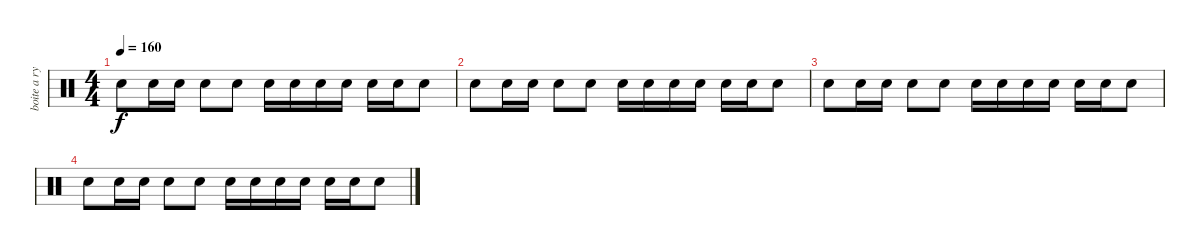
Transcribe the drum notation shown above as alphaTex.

\track ("boite a rythme" "boite a ry") {instrument percussion}
\staff {score}
\articulation defaults
\ts (4 4)
\tempo 160
\clef neutral
\ks c "Snare (hit) 2".8{dy f} "Snare (hit) 2".16 "Snare (hit) 2".16 "Snare (hit) 2".8 "Snare (hit) 2".8 "Snare (hit) 2".16 "Snare (hit) 2".16 "Snare (hit) 2".16 "Snare (hit) 2".16 "Snare (hit) 2".16 "Snare (hit) 2".16 "Snare (hit) 2".8
|
"Snare (hit) 2".8 "Snare (hit) 2".16 "Snare (hit) 2".16 "Snare (hit) 2".8 "Snare (hit) 2".8 "Snare (hit) 2".16 "Snare (hit) 2".16 "Snare (hit) 2".16 "Snare (hit) 2".16 "Snare (hit) 2".16 "Snare (hit) 2".16 "Snare (hit) 2".8 |
"Snare (hit) 2".8 "Snare (hit) 2".16 "Snare (hit) 2".16 "Snare (hit) 2".8 "Snare (hit) 2".8 "Snare (hit) 2".16 "Snare (hit) 2".16 "Snare (hit) 2".16 "Snare (hit) 2".16 "Snare (hit) 2".16 "Snare (hit) 2".16 "Snare (hit) 2".8 |
"Snare (hit) 2".8 "Snare (hit) 2".16 "Snare (hit) 2".16 "Snare (hit) 2".8 "Snare (hit) 2".8 "Snare (hit) 2".16 "Snare (hit) 2".16 "Snare (hit) 2".16 "Snare (hit) 2".16 "Snare (hit) 2".16 "Snare (hit) 2".16 "Snare (hit) 2".8
